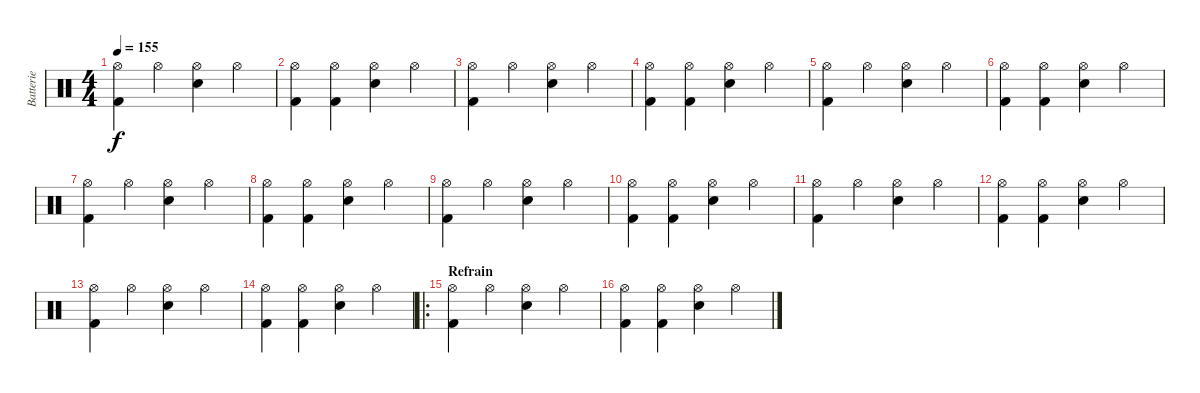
\track ("Batterie" "Batterie") {instrument percussion}
\staff {score}
\articulation defaults
\ts (4 4)
\tempo 155
\clef neutral
\ks c
("Hi-Hat (open)" "Kick (hit) 2").4{dy f} "Hi-Hat (open)".4 ("Hi-Hat (open)" "Snare (hit) 2").4 "Hi-Hat (open)".4 |
("Hi-Hat (open)" "Kick (hit) 2").4 ("Hi-Hat (open)" "Kick (hit) 2").4 ("Hi-Hat (open)" "Snare (hit) 2").4 "Hi-Hat (open)".4 |
("Hi-Hat (open)" "Kick (hit) 2").4 "Hi-Hat (open)".4 ("Hi-Hat (open)" "Snare (hit) 2").4 "Hi-Hat (open)".4 |
("Hi-Hat (open)" "Kick (hit) 2").4 ("Hi-Hat (open)" "Kick (hit) 2").4 ("Hi-Hat (open)" "Snare (hit) 2").4 "Hi-Hat (open)".4 |
("Hi-Hat (open)" "Kick (hit) 2").4 "Hi-Hat (open)".4 ("Hi-Hat (open)" "Snare (hit) 2").4 "Hi-Hat (open)".4 |
("Hi-Hat (open)" "Kick (hit) 2").4 ("Hi-Hat (open)" "Kick (hit) 2").4 ("Hi-Hat (open)" "Snare (hit) 2").4 "Hi-Hat (open)".4 |
("Hi-Hat (open)" "Kick (hit) 2").4 "Hi-Hat (open)".4 ("Hi-Hat (open)" "Snare (hit) 2").4 "Hi-Hat (open)".4 |
("Hi-Hat (open)" "Kick (hit) 2").4 ("Hi-Hat (open)" "Kick (hit) 2").4 ("Hi-Hat (open)" "Snare (hit) 2").4 "Hi-Hat (open)".4 |
("Hi-Hat (open)" "Kick (hit) 2").4 "Hi-Hat (open)".4 ("Hi-Hat (open)" "Snare (hit) 2").4 "Hi-Hat (open)".4 |
("Hi-Hat (open)" "Kick (hit) 2").4 ("Hi-Hat (open)" "Kick (hit) 2").4 ("Hi-Hat (open)" "Snare (hit) 2").4 "Hi-Hat (open)".4 |
("Hi-Hat (open)" "Kick (hit) 2").4 "Hi-Hat (open)".4 ("Hi-Hat (open)" "Snare (hit) 2").4 "Hi-Hat (open)".4 |
("Hi-Hat (open)" "Kick (hit) 2").4 ("Hi-Hat (open)" "Kick (hit) 2").4 ("Hi-Hat (open)" "Snare (hit) 2").4 "Hi-Hat (open)".4 |
("Hi-Hat (open)" "Kick (hit) 2").4 "Hi-Hat (open)".4 ("Hi-Hat (open)" "Snare (hit) 2").4 "Hi-Hat (open)".4 |
("Hi-Hat (open)" "Kick (hit) 2").4 ("Hi-Hat (open)" "Kick (hit) 2").4 ("Hi-Hat (open)" "Snare (hit) 2").4 "Hi-Hat (open)".4 |
\ro
\section ("" "Refrain")
("Hi-Hat (open)" "Kick (hit) 2").4 "Hi-Hat (open)".4 ("Hi-Hat (open)" "Snare (hit) 2").4 "Hi-Hat (open)".4 |
("Hi-Hat (open)" "Kick (hit) 2").4 ("Hi-Hat (open)" "Kick (hit) 2").4 ("Hi-Hat (open)" "Snare (hit) 2").4 "Hi-Hat (open)".4
